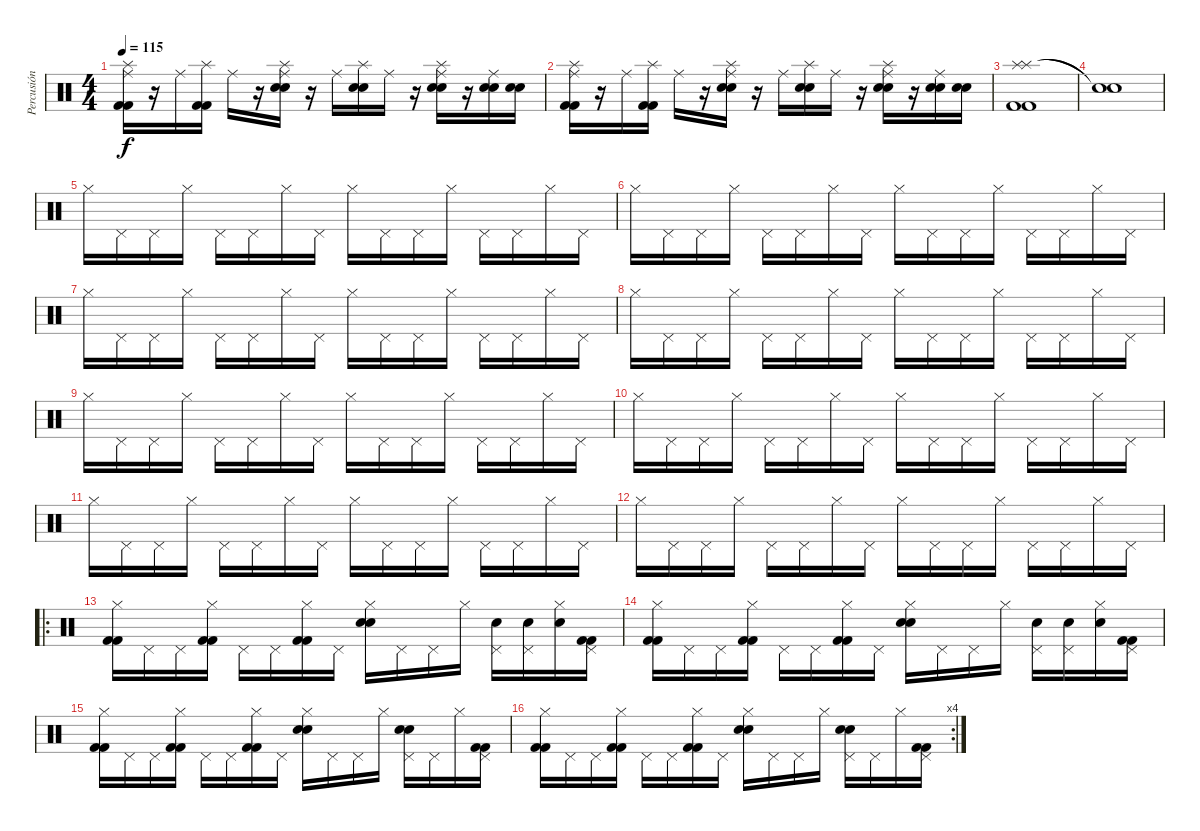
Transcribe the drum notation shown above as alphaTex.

\track ("Percusión" "Percusión") {instrument percussion}
\staff {score}
\articulation defaults
\ts (4 4)
\tempo 115
\clef neutral
\ks c
("Splash (hit)" "Ride (middle)" "Kick (hit) 2" "Kick (hit) 2").16{dy f} r.16 "Ride (middle)".16 ("Splash (hit)" "Kick (hit) 2" "Kick (hit) 2").16 "Ride (middle)".16 r.16 ("Splash (hit)" "Ride (middle)" "Electric Snare (hit)" "Electric Snare (hit)").16 r.16 "Ride (middle)".16 ("Splash (hit)" "Electric Snare (hit)" "Electric Snare (hit)").16 "Ride (middle)".16 r.16 ("Splash (hit)" "Ride (middle)" "Electric Snare (hit)" "Electric Snare (hit)").16 r.16 ("Ride (middle)" "Electric Snare (hit)" "Electric Snare (hit)").16 ("Electric Snare (hit)" "Electric Snare (hit)").16 |
("Splash (hit)" "Ride (middle)" "Kick (hit) 2" "Kick (hit) 2").16 r.16 "Ride (middle)".16 ("Splash (hit)" "Kick (hit) 2" "Kick (hit) 2").16 "Ride (middle)".16 r.16 ("Splash (hit)" "Ride (middle)" "Electric Snare (hit)" "Electric Snare (hit)").16 r.16 "Ride (middle)".16 ("Splash (hit)" "Electric Snare (hit)" "Electric Snare (hit)").16 "Ride (middle)".16 r.16 ("Splash (hit)" "Ride (middle)" "Electric Snare (hit)" "Electric Snare (hit)").16 r.16 ("Ride (middle)" "Electric Snare (hit)" "Electric Snare (hit)").16 ("Electric Snare (hit)" "Electric Snare (hit)").16 |
("Splash (hit)" "Splash (hit)" "Kick (hit) 2" "Kick (hit) 2").1 |
("Snare (hit)"{t} "Snare (hit)"{t}).1 |
"Hi-Hat (closed)".16 "Pedal Hi-Hat (hit)".16 "Pedal Hi-Hat (hit)".16 "Hi-Hat (closed)".16 "Pedal Hi-Hat (hit)".16 "Pedal Hi-Hat (hit)".16 "Hi-Hat (closed)".16 "Pedal Hi-Hat (hit)".16 "Hi-Hat (closed)".16 "Pedal Hi-Hat (hit)".16 "Pedal Hi-Hat (hit)".16 "Hi-Hat (closed)".16 "Pedal Hi-Hat (hit)".16 "Pedal Hi-Hat (hit)".16 "Hi-Hat (closed)".16 "Pedal Hi-Hat (hit)".16 |
"Hi-Hat (closed)".16 "Pedal Hi-Hat (hit)".16 "Pedal Hi-Hat (hit)".16 "Hi-Hat (closed)".16 "Pedal Hi-Hat (hit)".16 "Pedal Hi-Hat (hit)".16 "Hi-Hat (closed)".16 "Pedal Hi-Hat (hit)".16 "Hi-Hat (closed)".16 "Pedal Hi-Hat (hit)".16 "Pedal Hi-Hat (hit)".16 "Hi-Hat (closed)".16 "Pedal Hi-Hat (hit)".16 "Pedal Hi-Hat (hit)".16 "Hi-Hat (closed)".16 "Pedal Hi-Hat (hit)".16 |
"Hi-Hat (closed)".16 "Pedal Hi-Hat (hit)".16 "Pedal Hi-Hat (hit)".16 "Hi-Hat (closed)".16 "Pedal Hi-Hat (hit)".16 "Pedal Hi-Hat (hit)".16 "Hi-Hat (closed)".16 "Pedal Hi-Hat (hit)".16 "Hi-Hat (closed)".16 "Pedal Hi-Hat (hit)".16 "Pedal Hi-Hat (hit)".16 "Hi-Hat (closed)".16 "Pedal Hi-Hat (hit)".16 "Pedal Hi-Hat (hit)".16 "Hi-Hat (closed)".16 "Pedal Hi-Hat (hit)".16 |
"Hi-Hat (closed)".16 "Pedal Hi-Hat (hit)".16 "Pedal Hi-Hat (hit)".16 "Hi-Hat (closed)".16 "Pedal Hi-Hat (hit)".16 "Pedal Hi-Hat (hit)".16 "Hi-Hat (closed)".16 "Pedal Hi-Hat (hit)".16 "Hi-Hat (closed)".16 "Pedal Hi-Hat (hit)".16 "Pedal Hi-Hat (hit)".16 "Hi-Hat (closed)".16 "Pedal Hi-Hat (hit)".16 "Pedal Hi-Hat (hit)".16 "Hi-Hat (closed)".16 "Pedal Hi-Hat (hit)".16 |
"Hi-Hat (closed)".16 "Pedal Hi-Hat (hit)".16 "Pedal Hi-Hat (hit)".16 "Hi-Hat (closed)".16 "Pedal Hi-Hat (hit)".16 "Pedal Hi-Hat (hit)".16 "Hi-Hat (closed)".16 "Pedal Hi-Hat (hit)".16 "Hi-Hat (closed)".16 "Pedal Hi-Hat (hit)".16 "Pedal Hi-Hat (hit)".16 "Hi-Hat (closed)".16 "Pedal Hi-Hat (hit)".16 "Pedal Hi-Hat (hit)".16 "Hi-Hat (closed)".16 "Pedal Hi-Hat (hit)".16 |
"Hi-Hat (closed)".16 "Pedal Hi-Hat (hit)".16 "Pedal Hi-Hat (hit)".16 "Hi-Hat (closed)".16 "Pedal Hi-Hat (hit)".16 "Pedal Hi-Hat (hit)".16 "Hi-Hat (closed)".16 "Pedal Hi-Hat (hit)".16 "Hi-Hat (closed)".16 "Pedal Hi-Hat (hit)".16 "Pedal Hi-Hat (hit)".16 "Hi-Hat (closed)".16 "Pedal Hi-Hat (hit)".16 "Pedal Hi-Hat (hit)".16 "Hi-Hat (closed)".16 "Pedal Hi-Hat (hit)".16 |
"Hi-Hat (closed)".16 "Pedal Hi-Hat (hit)".16 "Pedal Hi-Hat (hit)".16 "Hi-Hat (closed)".16 "Pedal Hi-Hat (hit)".16 "Pedal Hi-Hat (hit)".16 "Hi-Hat (closed)".16 "Pedal Hi-Hat (hit)".16 "Hi-Hat (closed)".16 "Pedal Hi-Hat (hit)".16 "Pedal Hi-Hat (hit)".16 "Hi-Hat (closed)".16 "Pedal Hi-Hat (hit)".16 "Pedal Hi-Hat (hit)".16 "Hi-Hat (closed)".16 "Pedal Hi-Hat (hit)".16 |
"Hi-Hat (closed)".16 "Pedal Hi-Hat (hit)".16 "Pedal Hi-Hat (hit)".16 "Hi-Hat (closed)".16 "Pedal Hi-Hat (hit)".16 "Pedal Hi-Hat (hit)".16 "Hi-Hat (closed)".16 "Pedal Hi-Hat (hit)".16 "Hi-Hat (closed)".16 "Pedal Hi-Hat (hit)".16 "Pedal Hi-Hat (hit)".16 "Hi-Hat (closed)".16 "Pedal Hi-Hat (hit)".16 "Pedal Hi-Hat (hit)".16 "Hi-Hat (closed)".16 "Pedal Hi-Hat (hit)".16 |
\ro
("Hi-Hat (closed)" "Kick (hit) 2" "Kick (hit) 2").16 "Pedal Hi-Hat (hit)".16 "Pedal Hi-Hat (hit)".16 ("Hi-Hat (closed)" "Kick (hit) 2" "Kick (hit) 2").16 "Pedal Hi-Hat (hit)".16 "Pedal Hi-Hat (hit)".16 ("Hi-Hat (closed)" "Kick (hit) 2" "Kick (hit) 2").16 "Pedal Hi-Hat (hit)".16 ("Hi-Hat (closed)" "Electric Snare (hit)" "Electric Snare (hit)").16 "Pedal Hi-Hat (hit)".16 "Pedal Hi-Hat (hit)".16 "Hi-Hat (closed)".16 ("Pedal Hi-Hat (hit)" "Electric Snare (hit)").16 ("Pedal Hi-Hat (hit)" "Electric Snare (hit)").16 ("Hi-Hat (closed)" "Electric Snare (hit)").16 ("Pedal Hi-Hat (hit)" "Kick (hit) 2" "Kick (hit) 2").16 |
("Hi-Hat (closed)" "Kick (hit) 2" "Kick (hit) 2").16 "Pedal Hi-Hat (hit)".16 "Pedal Hi-Hat (hit)".16 ("Hi-Hat (closed)" "Kick (hit) 2" "Kick (hit) 2").16 "Pedal Hi-Hat (hit)".16 "Pedal Hi-Hat (hit)".16 ("Hi-Hat (closed)" "Kick (hit) 2" "Kick (hit) 2").16 "Pedal Hi-Hat (hit)".16 ("Hi-Hat (closed)" "Electric Snare (hit)" "Electric Snare (hit)").16 "Pedal Hi-Hat (hit)".16 "Pedal Hi-Hat (hit)".16 "Hi-Hat (closed)".16 ("Pedal Hi-Hat (hit)" "Electric Snare (hit)").16 ("Pedal Hi-Hat (hit)" "Electric Snare (hit)").16 ("Hi-Hat (closed)" "Electric Snare (hit)").16 ("Pedal Hi-Hat (hit)" "Kick (hit) 2" "Kick (hit) 2").16 |
("Hi-Hat (closed)" "Kick (hit) 2" "Kick (hit) 2").16 "Pedal Hi-Hat (hit)".16 "Pedal Hi-Hat (hit)".16 ("Hi-Hat (closed)" "Kick (hit) 2" "Kick (hit) 2").16 "Pedal Hi-Hat (hit)".16 "Pedal Hi-Hat (hit)".16 ("Hi-Hat (closed)" "Kick (hit) 2" "Kick (hit) 2").16 "Pedal Hi-Hat (hit)".16 ("Hi-Hat (closed)" "Electric Snare (hit)" "Electric Snare (hit)").16 "Pedal Hi-Hat (hit)".16 "Pedal Hi-Hat (hit)".16 "Hi-Hat (closed)".16 ("Pedal Hi-Hat (hit)" "Electric Snare (hit)" "Electric Snare (hit)").16 "Pedal Hi-Hat (hit)".16 "Hi-Hat (closed)".16 ("Pedal Hi-Hat (hit)" "Kick (hit) 2" "Kick (hit) 2").16 |
\rc 4
("Hi-Hat (closed)" "Kick (hit) 2" "Kick (hit) 2").16 "Pedal Hi-Hat (hit)".16 "Pedal Hi-Hat (hit)".16 ("Hi-Hat (closed)" "Kick (hit) 2" "Kick (hit) 2").16 "Pedal Hi-Hat (hit)".16 "Pedal Hi-Hat (hit)".16 ("Hi-Hat (closed)" "Kick (hit) 2" "Kick (hit) 2").16 "Pedal Hi-Hat (hit)".16 ("Hi-Hat (closed)" "Electric Snare (hit)" "Electric Snare (hit)").16 "Pedal Hi-Hat (hit)".16 "Pedal Hi-Hat (hit)".16 "Hi-Hat (closed)".16 ("Pedal Hi-Hat (hit)" "Electric Snare (hit)" "Electric Snare (hit)").16 "Pedal Hi-Hat (hit)".16 "Hi-Hat (closed)".16 ("Pedal Hi-Hat (hit)" "Kick (hit) 2" "Kick (hit) 2").16
